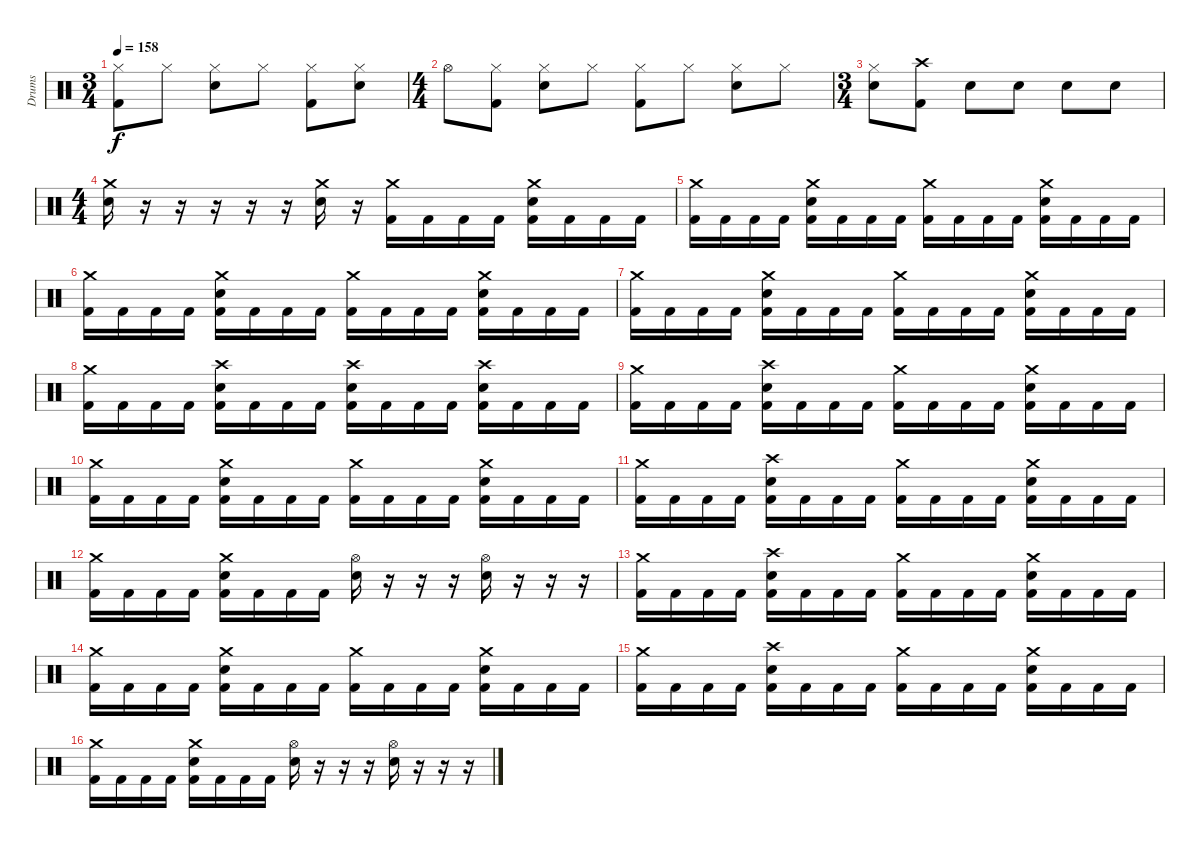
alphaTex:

\track ("Drums" "Drums") {instrument percussion}
\staff {score}
\articulation defaults
\ts (3 4)
\tempo 158
\clef neutral
\ks c
("Hi-Hat (closed)" "Kick (hit) 2").8{dy f} "Hi-Hat (closed)".8 ("Hi-Hat (closed)" "Snare (hit) 2").8 "Hi-Hat (closed)".8 ("Hi-Hat (closed)" "Kick (hit) 2").8 ("Hi-Hat (closed)" "Snare (hit) 2").8 |
\ts (4 4)
"Hi-Hat (open)".8 ("Hi-Hat (closed)" "Kick (hit) 2").8 ("Hi-Hat (closed)" "Snare (hit) 2").8 "Hi-Hat (closed)".8 ("Hi-Hat (closed)" "Kick (hit) 2").8 "Hi-Hat (closed)".8 ("Hi-Hat (closed)" "Snare (hit) 2").8 "Hi-Hat (closed)".8 |
\ts (3 4)
("Hi-Hat (closed)" "Snare (hit) 2").8 ("Crash high (hit)" "Kick (hit) 2").8 "Snare (hit) 2".8 "Snare (hit) 2".8 "Snare (hit) 2".8 "Snare (hit) 2".8 |
\ts (4 4)
("Crash medium (hit)" "Snare (hit) 2").16 r.16 r.16 r.16 r.16 r.16 ("Crash medium (hit)" "Snare (hit) 2").16 r.16 ("Crash medium (hit)" "Kick (hit) 2").16 "Kick (hit) 2".16 "Kick (hit) 2".16 "Kick (hit) 2".16 ("Crash medium (hit)" "Snare (hit) 2" "Kick (hit) 2").16 "Kick (hit) 2".16 "Kick (hit) 2".16 "Kick (hit) 2".16 |
("Crash medium (hit)" "Kick (hit) 2").16 "Kick (hit) 2".16 "Kick (hit) 2".16 "Kick (hit) 2".16 ("Crash medium (hit)" "Snare (hit) 2" "Kick (hit) 2").16 "Kick (hit) 2".16 "Kick (hit) 2".16 "Kick (hit) 2".16 ("Crash medium (hit)" "Kick (hit) 2").16 "Kick (hit) 2".16 "Kick (hit) 2".16 "Kick (hit) 2".16 ("Crash medium (hit)" "Snare (hit) 2" "Kick (hit) 2").16 "Kick (hit) 2".16 "Kick (hit) 2".16 "Kick (hit) 2".16 |
("Crash medium (hit)" "Kick (hit) 2").16 "Kick (hit) 2".16 "Kick (hit) 2".16 "Kick (hit) 2".16 ("Crash medium (hit)" "Snare (hit) 2" "Kick (hit) 2").16 "Kick (hit) 2".16 "Kick (hit) 2".16 "Kick (hit) 2".16 ("Crash medium (hit)" "Kick (hit) 2").16 "Kick (hit) 2".16 "Kick (hit) 2".16 "Kick (hit) 2".16 ("Crash medium (hit)" "Snare (hit) 2" "Kick (hit) 2").16 "Kick (hit) 2".16 "Kick (hit) 2".16 "Kick (hit) 2".16 |
("Crash medium (hit)" "Kick (hit) 2").16 "Kick (hit) 2".16 "Kick (hit) 2".16 "Kick (hit) 2".16 ("Crash medium (hit)" "Snare (hit) 2" "Kick (hit) 2").16 "Kick (hit) 2".16 "Kick (hit) 2".16 "Kick (hit) 2".16 ("Crash medium (hit)" "Kick (hit) 2").16 "Kick (hit) 2".16 "Kick (hit) 2".16 "Kick (hit) 2".16 ("Crash medium (hit)" "Snare (hit) 2" "Kick (hit) 2").16 "Kick (hit) 2".16 "Kick (hit) 2".16 "Kick (hit) 2".16 |
("Crash medium (hit)" "Kick (hit) 2").16 "Kick (hit) 2".16 "Kick (hit) 2".16 "Kick (hit) 2".16 ("Crash high (hit)" "Snare (hit) 2" "Kick (hit) 2").16 "Kick (hit) 2".16 "Kick (hit) 2".16 "Kick (hit) 2".16 ("Crash high (hit)" "Snare (hit) 2" "Kick (hit) 2").16 "Kick (hit) 2".16 "Kick (hit) 2".16 "Kick (hit) 2".16 ("Crash high (hit)" "Snare (hit) 2" "Kick (hit) 2").16 "Kick (hit) 2".16 "Kick (hit) 2".16 "Kick (hit) 2".16 |
("Crash medium (hit)" "Kick (hit) 2").16 "Kick (hit) 2".16 "Kick (hit) 2".16 "Kick (hit) 2".16 ("Crash high (hit)" "Snare (hit) 2" "Kick (hit) 2").16 "Kick (hit) 2".16 "Kick (hit) 2".16 "Kick (hit) 2".16 ("Crash medium (hit)" "Kick (hit) 2").16 "Kick (hit) 2".16 "Kick (hit) 2".16 "Kick (hit) 2".16 ("Crash medium (hit)" "Snare (hit) 2" "Kick (hit) 2").16 "Kick (hit) 2".16 "Kick (hit) 2".16 "Kick (hit) 2".16 |
("Crash medium (hit)" "Kick (hit) 2").16 "Kick (hit) 2".16 "Kick (hit) 2".16 "Kick (hit) 2".16 ("Crash medium (hit)" "Snare (hit) 2" "Kick (hit) 2").16 "Kick (hit) 2".16 "Kick (hit) 2".16 "Kick (hit) 2".16 ("Crash medium (hit)" "Kick (hit) 2").16 "Kick (hit) 2".16 "Kick (hit) 2".16 "Kick (hit) 2".16 ("Crash medium (hit)" "Snare (hit) 2" "Kick (hit) 2").16 "Kick (hit) 2".16 "Kick (hit) 2".16 "Kick (hit) 2".16 |
("Crash medium (hit)" "Kick (hit) 2").16 "Kick (hit) 2".16 "Kick (hit) 2".16 "Kick (hit) 2".16 ("Crash high (hit)" "Snare (hit) 2" "Kick (hit) 2").16 "Kick (hit) 2".16 "Kick (hit) 2".16 "Kick (hit) 2".16 ("Crash medium (hit)" "Kick (hit) 2").16 "Kick (hit) 2".16 "Kick (hit) 2".16 "Kick (hit) 2".16 ("Crash medium (hit)" "Snare (hit) 2" "Kick (hit) 2").16 "Kick (hit) 2".16 "Kick (hit) 2".16 "Kick (hit) 2".16 |
("Crash medium (hit)" "Kick (hit) 2").16 "Kick (hit) 2".16 "Kick (hit) 2".16 "Kick (hit) 2".16 ("Crash medium (hit)" "Snare (hit) 2" "Kick (hit) 2").16 "Kick (hit) 2".16 "Kick (hit) 2".16 "Kick (hit) 2".16 ("Hi-Hat (open)" "Snare (hit) 2").16 r.16 r.16 r.16 ("Hi-Hat (open)" "Snare (hit) 2").16 r.16 r.16 r.16 |
("Crash medium (hit)" "Kick (hit) 2").16 "Kick (hit) 2".16 "Kick (hit) 2".16 "Kick (hit) 2".16 ("Crash high (hit)" "Snare (hit) 2" "Kick (hit) 2").16 "Kick (hit) 2".16 "Kick (hit) 2".16 "Kick (hit) 2".16 ("Crash medium (hit)" "Kick (hit) 2").16 "Kick (hit) 2".16 "Kick (hit) 2".16 "Kick (hit) 2".16 ("Crash medium (hit)" "Snare (hit) 2" "Kick (hit) 2").16 "Kick (hit) 2".16 "Kick (hit) 2".16 "Kick (hit) 2".16 |
("Crash medium (hit)" "Kick (hit) 2").16 "Kick (hit) 2".16 "Kick (hit) 2".16 "Kick (hit) 2".16 ("Crash medium (hit)" "Snare (hit) 2" "Kick (hit) 2").16 "Kick (hit) 2".16 "Kick (hit) 2".16 "Kick (hit) 2".16 ("Crash medium (hit)" "Kick (hit) 2").16 "Kick (hit) 2".16 "Kick (hit) 2".16 "Kick (hit) 2".16 ("Crash medium (hit)" "Snare (hit) 2" "Kick (hit) 2").16 "Kick (hit) 2".16 "Kick (hit) 2".16 "Kick (hit) 2".16 |
("Crash medium (hit)" "Kick (hit) 2").16 "Kick (hit) 2".16 "Kick (hit) 2".16 "Kick (hit) 2".16 ("Crash high (hit)" "Snare (hit) 2" "Kick (hit) 2").16 "Kick (hit) 2".16 "Kick (hit) 2".16 "Kick (hit) 2".16 ("Crash medium (hit)" "Kick (hit) 2").16 "Kick (hit) 2".16 "Kick (hit) 2".16 "Kick (hit) 2".16 ("Crash medium (hit)" "Snare (hit) 2" "Kick (hit) 2").16 "Kick (hit) 2".16 "Kick (hit) 2".16 "Kick (hit) 2".16 |
("Crash medium (hit)" "Kick (hit) 2").16 "Kick (hit) 2".16 "Kick (hit) 2".16 "Kick (hit) 2".16 ("Crash medium (hit)" "Snare (hit) 2" "Kick (hit) 2").16 "Kick (hit) 2".16 "Kick (hit) 2".16 "Kick (hit) 2".16 ("Hi-Hat (open)" "Snare (hit) 2").16 r.16 r.16 r.16 ("Hi-Hat (open)" "Snare (hit) 2").16 r.16 r.16 r.16
